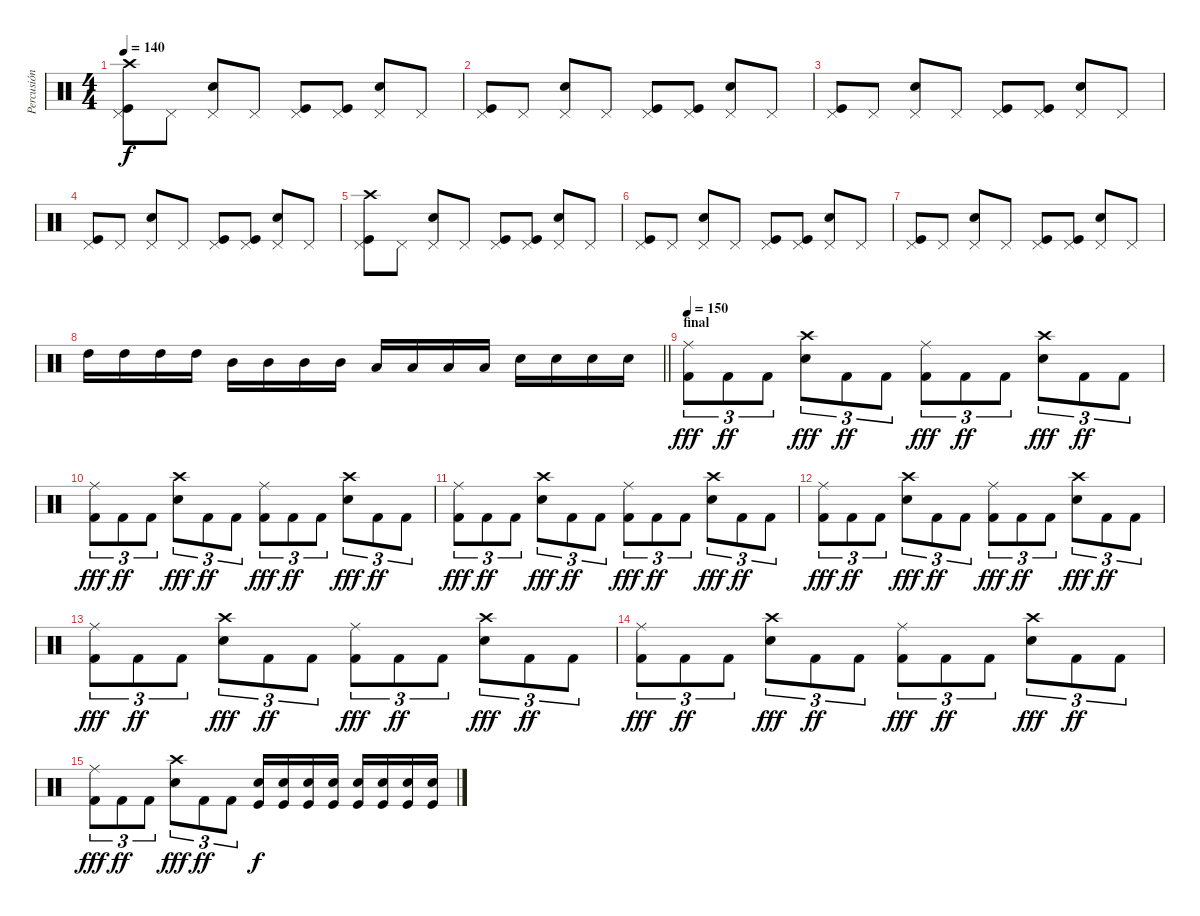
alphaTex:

\track ("Percusión" "Percusión") {instrument percussion}
\staff {score}
\articulation defaults
\ts (4 4)
\tempo 140
\clef neutral
\ks c
("Crash high (hit)" "Kick (hit)" "Pedal Hi-Hat (hit)").8{dy f} "Pedal Hi-Hat (hit)".8 ("Snare (hit) 2" "Pedal Hi-Hat (hit)").8 "Pedal Hi-Hat (hit)".8 ("Kick (hit)" "Pedal Hi-Hat (hit)").8 ("Kick (hit)" "Pedal Hi-Hat (hit)").8 ("Snare (hit) 2" "Pedal Hi-Hat (hit)").8 "Pedal Hi-Hat (hit)".8 |
("Kick (hit)" "Pedal Hi-Hat (hit)").8 "Pedal Hi-Hat (hit)".8 ("Snare (hit) 2" "Pedal Hi-Hat (hit)").8 "Pedal Hi-Hat (hit)".8 ("Kick (hit)" "Pedal Hi-Hat (hit)").8 ("Kick (hit)" "Pedal Hi-Hat (hit)").8 ("Snare (hit) 2" "Pedal Hi-Hat (hit)").8 "Pedal Hi-Hat (hit)".8 |
("Kick (hit)" "Pedal Hi-Hat (hit)").8 "Pedal Hi-Hat (hit)".8 ("Snare (hit) 2" "Pedal Hi-Hat (hit)").8 "Pedal Hi-Hat (hit)".8 ("Kick (hit)" "Pedal Hi-Hat (hit)").8 ("Kick (hit)" "Pedal Hi-Hat (hit)").8 ("Snare (hit) 2" "Pedal Hi-Hat (hit)").8 "Pedal Hi-Hat (hit)".8 |
("Kick (hit)" "Pedal Hi-Hat (hit)").8 "Pedal Hi-Hat (hit)".8 ("Snare (hit) 2" "Pedal Hi-Hat (hit)").8 "Pedal Hi-Hat (hit)".8 ("Kick (hit)" "Pedal Hi-Hat (hit)").8 ("Kick (hit)" "Pedal Hi-Hat (hit)").8 ("Snare (hit) 2" "Pedal Hi-Hat (hit)").8 "Pedal Hi-Hat (hit)".8 |
("Crash high (hit)" "Kick (hit)" "Pedal Hi-Hat (hit)").8 "Pedal Hi-Hat (hit)".8 ("Snare (hit) 2" "Pedal Hi-Hat (hit)").8 "Pedal Hi-Hat (hit)".8 ("Kick (hit)" "Pedal Hi-Hat (hit)").8 ("Kick (hit)" "Pedal Hi-Hat (hit)").8 ("Snare (hit) 2" "Pedal Hi-Hat (hit)").8 "Pedal Hi-Hat (hit)".8 |
("Kick (hit)" "Pedal Hi-Hat (hit)").8 "Pedal Hi-Hat (hit)".8 ("Snare (hit) 2" "Pedal Hi-Hat (hit)").8 "Pedal Hi-Hat (hit)".8 ("Kick (hit)" "Pedal Hi-Hat (hit)").8 ("Kick (hit)" "Pedal Hi-Hat (hit)").8 ("Snare (hit) 2" "Pedal Hi-Hat (hit)").8 "Pedal Hi-Hat (hit)".8 |
("Kick (hit)" "Pedal Hi-Hat (hit)").8 "Pedal Hi-Hat (hit)".8 ("Snare (hit) 2" "Pedal Hi-Hat (hit)").8 "Pedal Hi-Hat (hit)".8 ("Kick (hit)" "Pedal Hi-Hat (hit)").8 ("Kick (hit)" "Pedal Hi-Hat (hit)").8 ("Snare (hit) 2" "Pedal Hi-Hat (hit)").8 "Pedal Hi-Hat (hit)".8 |
\barLineRight lightlight "High Tom (hit)".16 "High Tom (hit)".16 "High Tom (hit)".16 "High Tom (hit)".16 "Mid Tom (hit)".16 "Mid Tom (hit)".16 "Mid Tom (hit)".16 "Mid Tom (hit)".16 "Low Tom (hit)".16 "Low Tom (hit)".16 "Low Tom (hit)".16 "Low Tom (hit)".16 "Snare (hit) 2".16 "Snare (hit) 2".16 "Snare (hit) 2".16 "Snare (hit) 2".16
|
\section ("" "final")
\tempo 150
("Kick (hit) 2" "Ride (middle)").8{tu (3 2) dy fff} "Kick (hit) 2".8{tu (3 2) dy ff} "Kick (hit) 2".8{tu (3 2)} ("Electric Snare (hit)" "Crash high (hit)").8{tu (3 2) dy fff} "Kick (hit) 2".8{tu (3 2) dy ff} "Kick (hit) 2".8{tu (3 2)} ("Kick (hit) 2" "Ride (middle)").8{tu (3 2) dy fff} "Kick (hit) 2".8{tu (3 2) dy ff} "Kick (hit) 2".8{tu (3 2)} ("Electric Snare (hit)" "Crash high (hit)").8{tu (3 2) dy fff} "Kick (hit) 2".8{tu (3 2) dy ff} "Kick (hit) 2".8{tu (3 2)} |
("Kick (hit) 2" "Ride (middle)").8{tu (3 2) dy fff} "Kick (hit) 2".8{tu (3 2) dy ff} "Kick (hit) 2".8{tu (3 2)} ("Electric Snare (hit)" "Crash high (hit)").8{tu (3 2) dy fff} "Kick (hit) 2".8{tu (3 2) dy ff} "Kick (hit) 2".8{tu (3 2)} ("Kick (hit) 2" "Ride (middle)").8{tu (3 2) dy fff} "Kick (hit) 2".8{tu (3 2) dy ff} "Kick (hit) 2".8{tu (3 2)} ("Electric Snare (hit)" "Crash high (hit)").8{tu (3 2) dy fff} "Kick (hit) 2".8{tu (3 2) dy ff} "Kick (hit) 2".8{tu (3 2)} |
("Kick (hit) 2" "Ride (middle)").8{tu (3 2) dy fff} "Kick (hit) 2".8{tu (3 2) dy ff} "Kick (hit) 2".8{tu (3 2)} ("Electric Snare (hit)" "Crash high (hit)").8{tu (3 2) dy fff} "Kick (hit) 2".8{tu (3 2) dy ff} "Kick (hit) 2".8{tu (3 2)} ("Kick (hit) 2" "Ride (middle)").8{tu (3 2) dy fff} "Kick (hit) 2".8{tu (3 2) dy ff} "Kick (hit) 2".8{tu (3 2)} ("Electric Snare (hit)" "Crash high (hit)").8{tu (3 2) dy fff} "Kick (hit) 2".8{tu (3 2) dy ff} "Kick (hit) 2".8{tu (3 2)} |
("Kick (hit) 2" "Ride (middle)").8{tu (3 2) dy fff} "Kick (hit) 2".8{tu (3 2) dy ff} "Kick (hit) 2".8{tu (3 2)} ("Electric Snare (hit)" "Crash high (hit)").8{tu (3 2) dy fff} "Kick (hit) 2".8{tu (3 2) dy ff} "Kick (hit) 2".8{tu (3 2)} ("Kick (hit) 2" "Ride (middle)").8{tu (3 2) dy fff} "Kick (hit) 2".8{tu (3 2) dy ff} "Kick (hit) 2".8{tu (3 2)} ("Electric Snare (hit)" "Crash high (hit)").8{tu (3 2) dy fff} "Kick (hit) 2".8{tu (3 2) dy ff} "Kick (hit) 2".8{tu (3 2)} |
("Kick (hit) 2" "Ride (middle)").8{tu (3 2) dy fff} "Kick (hit) 2".8{tu (3 2) dy ff} "Kick (hit) 2".8{tu (3 2)} ("Electric Snare (hit)" "Crash high (hit)").8{tu (3 2) dy fff} "Kick (hit) 2".8{tu (3 2) dy ff} "Kick (hit) 2".8{tu (3 2)} ("Kick (hit) 2" "Ride (middle)").8{tu (3 2) dy fff} "Kick (hit) 2".8{tu (3 2) dy ff} "Kick (hit) 2".8{tu (3 2)} ("Electric Snare (hit)" "Crash high (hit)").8{tu (3 2) dy fff} "Kick (hit) 2".8{tu (3 2) dy ff} "Kick (hit) 2".8{tu (3 2)} |
("Kick (hit) 2" "Ride (middle)").8{tu (3 2) dy fff} "Kick (hit) 2".8{tu (3 2) dy ff} "Kick (hit) 2".8{tu (3 2)} ("Electric Snare (hit)" "Crash high (hit)").8{tu (3 2) dy fff} "Kick (hit) 2".8{tu (3 2) dy ff} "Kick (hit) 2".8{tu (3 2)} ("Kick (hit) 2" "Ride (middle)").8{tu (3 2) dy fff} "Kick (hit) 2".8{tu (3 2) dy ff} "Kick (hit) 2".8{tu (3 2)} ("Electric Snare (hit)" "Crash high (hit)").8{tu (3 2) dy fff} "Kick (hit) 2".8{tu (3 2) dy ff} "Kick (hit) 2".8{tu (3 2)} |
("Kick (hit) 2" "Ride (middle)").8{tu (3 2) dy fff} "Kick (hit) 2".8{tu (3 2) dy ff} "Kick (hit) 2".8{tu (3 2)} ("Electric Snare (hit)" "Crash high (hit)").8{tu (3 2) dy fff} "Kick (hit) 2".8{tu (3 2) dy ff} "Kick (hit) 2".8{tu (3 2)} ("Snare (hit) 2" "Kick (hit)").16{dy f} ("Kick (hit)" "Snare (hit) 2").16 ("Snare (hit) 2" "Kick (hit)").16 ("Snare (hit) 2" "Kick (hit)").16 ("Kick (hit)" "Snare (hit) 2").16 ("Snare (hit) 2" "Kick (hit)").16 ("Kick (hit)" "Snare (hit) 2").16 ("Snare (hit) 2" "Kick (hit)").16
